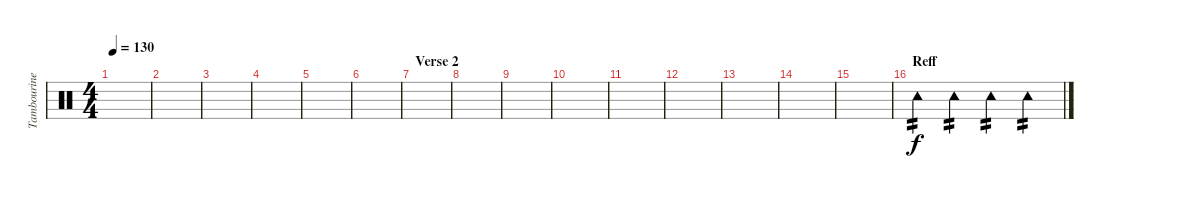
\track ("Tambourine" "Tambourine") {instrument percussion}
\staff {score}
\articulation defaults
\ts (4 4)
\tempo 130
\clef neutral
\ks c
|
|
|
|
|
|
\section ("" "Verse 2")
|
|
|
|
|
|
|
|
|
\section ("" "Reff")
"Tambourine (hit)".4{tp 2} "Tambourine (hit)".4{tp 2} "Tambourine (hit)".4{tp 2} "Tambourine (hit)".4{tp 2}
